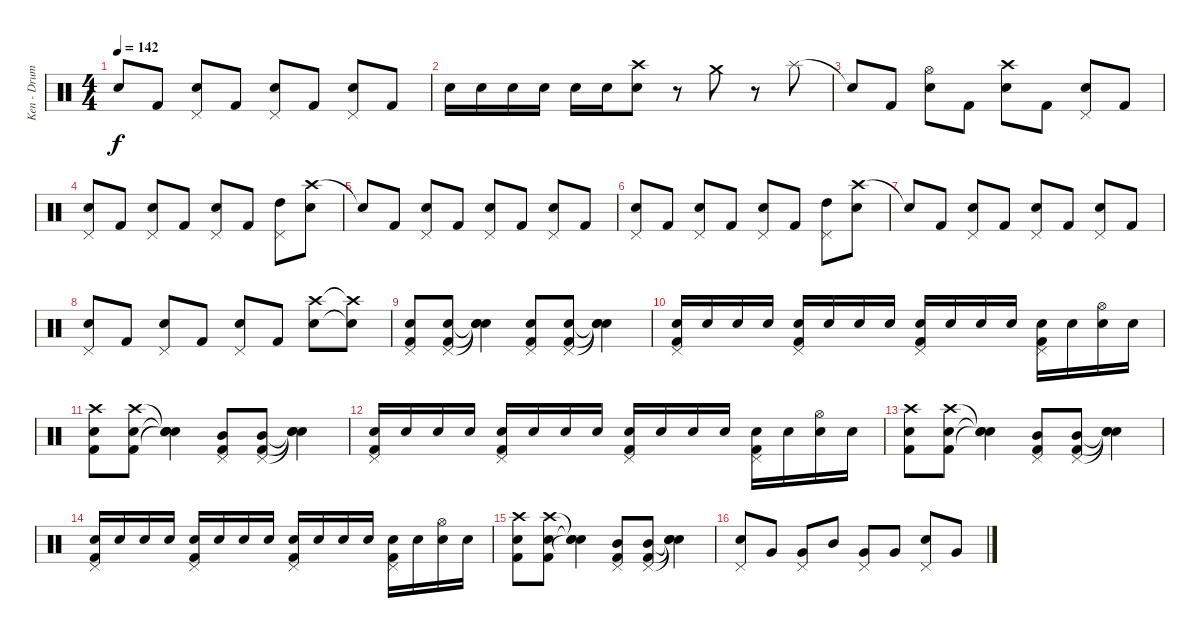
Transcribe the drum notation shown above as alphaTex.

\track ("Ken - Drums" "Ken - Drum") {instrument percussion}
\staff {score}
\articulation defaults
\ts (4 4)
\tempo 142
\clef neutral
\ks c "Snare (hit)"{t}.8{dy f} "Kick (hit) 2".8
("Pedal Hi-Hat (hit)" "Electric Snare (hit)").8 "Kick (hit) 2".8 ("Pedal Hi-Hat (hit)" "Electric Snare (hit)").8 "Kick (hit) 2".8 ("Pedal Hi-Hat (hit)" "Electric Snare (hit)").8 "Kick (hit) 2".8 |
"Electric Snare (hit)".16 "Electric Snare (hit)".16 "Electric Snare (hit)".16 "Electric Snare (hit)".16 "Electric Snare (hit)".16 "Electric Snare (hit)".16 ("Crash high (hit)" "Electric Snare (hit)").8 r.8 "Crash medium (hit)".8 r.8 "Splash (hit)".8 |
"Snare (hit)"{t}.8 "Kick (hit) 2".8 ("Hi-Hat (open)" "Electric Snare (hit)").8 "Kick (hit) 2".8 ("Crash high (hit)" "Electric Snare (hit)").8 "Kick (hit) 2".8 ("Pedal Hi-Hat (hit)" "Electric Snare (hit)").8 "Kick (hit) 2".8 |
("Pedal Hi-Hat (hit)" "Electric Snare (hit)").8 "Kick (hit) 2".8 ("Pedal Hi-Hat (hit)" "Electric Snare (hit)").8 "Kick (hit) 2".8 ("Pedal Hi-Hat (hit)" "Electric Snare (hit)").8 "Kick (hit) 2".8 ("Pedal Hi-Hat (hit)" "High Tom (hit)").8 ("Crash high (hit)" "Electric Snare (hit)").8 |
"Snare (hit)"{t}.8 "Kick (hit) 2".8 ("Pedal Hi-Hat (hit)" "Electric Snare (hit)").8 "Kick (hit) 2".8 ("Pedal Hi-Hat (hit)" "Electric Snare (hit)").8 "Kick (hit) 2".8 ("Pedal Hi-Hat (hit)" "Electric Snare (hit)").8 "Kick (hit) 2".8 |
("Pedal Hi-Hat (hit)" "Electric Snare (hit)").8 "Kick (hit) 2".8 ("Pedal Hi-Hat (hit)" "Electric Snare (hit)").8 "Kick (hit) 2".8 ("Pedal Hi-Hat (hit)" "Electric Snare (hit)").8 "Kick (hit) 2".8 ("Pedal Hi-Hat (hit)" "High Tom (hit)").8 ("Crash high (hit)" "Electric Snare (hit)").8 |
"Snare (hit)"{t}.8 "Kick (hit) 2".8 ("Pedal Hi-Hat (hit)" "Electric Snare (hit)").8 "Kick (hit) 2".8 ("Pedal Hi-Hat (hit)" "Electric Snare (hit)").8 "Kick (hit) 2".8 ("Pedal Hi-Hat (hit)" "Electric Snare (hit)").8 "Kick (hit) 2".8 |
("Pedal Hi-Hat (hit)" "Electric Snare (hit)").8 "Kick (hit) 2".8 ("Pedal Hi-Hat (hit)" "Electric Snare (hit)").8 "Kick (hit) 2".8 ("Pedal Hi-Hat (hit)" "Electric Snare (hit)").8 "Kick (hit) 2".8 ("Crash high (hit)" "Electric Snare (hit)").8 ("Crash high (hit)"{t} "Electric Snare (hit)"{t}).8 |
("Pedal Hi-Hat (hit)" "Electric Snare (hit)" "Kick (hit) 2").8 ("Pedal Hi-Hat (hit)" "Electric Snare (hit)" "Kick (hit) 2").8 ("Snare (hit)"{t} "Snare (hit)"{t} "Snare (hit)"{t}).4 ("Pedal Hi-Hat (hit)" "Electric Snare (hit)" "Kick (hit) 2").8 ("Pedal Hi-Hat (hit)" "Electric Snare (hit)" "Kick (hit) 2").8 ("Snare (hit)"{t} "Snare (hit)"{t} "Snare (hit)"{t}).4 |
("Pedal Hi-Hat (hit)" "Electric Snare (hit)" "Kick (hit) 2").16 "Electric Snare (hit)".16 "Electric Snare (hit)".16 "Electric Snare (hit)".16 ("Pedal Hi-Hat (hit)" "Electric Snare (hit)" "Kick (hit) 2").16 "Electric Snare (hit)".16 "Electric Snare (hit)".16 "Electric Snare (hit)".16 ("Pedal Hi-Hat (hit)" "Electric Snare (hit)" "Kick (hit) 2").16 "Electric Snare (hit)".16 "Electric Snare (hit)".16 "Electric Snare (hit)".16 ("Pedal Hi-Hat (hit)" "Electric Snare (hit)" "Kick (hit) 2").16 "Electric Snare (hit)".16 ("Hi-Hat (open)" "Electric Snare (hit)").16 "Electric Snare (hit)".16 |
("Crash high (hit)" "Electric Snare (hit)" "Kick (hit) 2").8 ("Crash high (hit)" "Electric Snare (hit)" "Kick (hit) 2").8 ("Snare (hit)"{t} "Snare (hit)"{t} "Snare (hit)"{t} "Snare (hit)").4 ("Pedal Hi-Hat (hit)" "Mid Tom (hit)" "Kick (hit) 2").8 ("Pedal Hi-Hat (hit)" "Mid Tom (hit)" "Kick (hit) 2").8 ("Snare (hit)"{t} "Snare (hit)"{t} "Snare (hit)"{t}).4 |
("Pedal Hi-Hat (hit)" "Electric Snare (hit)" "Kick (hit) 2").16 "Electric Snare (hit)".16 "Electric Snare (hit)".16 "Electric Snare (hit)".16 ("Pedal Hi-Hat (hit)" "Electric Snare (hit)" "Kick (hit) 2").16 "Electric Snare (hit)".16 "Electric Snare (hit)".16 "Electric Snare (hit)".16 ("Pedal Hi-Hat (hit)" "Electric Snare (hit)" "Kick (hit) 2").16 "Electric Snare (hit)".16 "Electric Snare (hit)".16 "Electric Snare (hit)".16 ("Pedal Hi-Hat (hit)" "Electric Snare (hit)" "Kick (hit) 2").16 "Electric Snare (hit)".16 ("Hi-Hat (open)" "Electric Snare (hit)").16 "Electric Snare (hit)".16 |
("Crash high (hit)" "Electric Snare (hit)" "Kick (hit) 2").8 ("Crash high (hit)" "Electric Snare (hit)" "Kick (hit) 2").8 ("Snare (hit)"{t} "Snare (hit)"{t} "Snare (hit)"{t}).4 ("Pedal Hi-Hat (hit)" "Mid Tom (hit)" "Kick (hit) 2").8 ("Pedal Hi-Hat (hit)" "Mid Tom (hit)" "Kick (hit) 2").8 ("Snare (hit)"{t} "Snare (hit)"{t} "Snare (hit)"{t}).4 |
("Pedal Hi-Hat (hit)" "Electric Snare (hit)" "Kick (hit) 2").16 "Electric Snare (hit)".16 "Electric Snare (hit)".16 "Electric Snare (hit)".16 ("Pedal Hi-Hat (hit)" "Electric Snare (hit)" "Kick (hit) 2").16 "Electric Snare (hit)".16 "Electric Snare (hit)".16 "Electric Snare (hit)".16 ("Pedal Hi-Hat (hit)" "Electric Snare (hit)" "Kick (hit) 2").16 "Electric Snare (hit)".16 "Electric Snare (hit)".16 "Electric Snare (hit)".16 ("Pedal Hi-Hat (hit)" "Electric Snare (hit)" "Kick (hit) 2").16 "Electric Snare (hit)".16 ("Hi-Hat (open)" "Electric Snare (hit)").16 "Electric Snare (hit)".16 |
("Crash high (hit)" "Electric Snare (hit)" "Kick (hit) 2").8 ("Crash high (hit)" "Electric Snare (hit)" "Kick (hit) 2").8 ("Snare (hit)"{t} "Snare (hit)"{t} "Snare (hit)"{t}).4 ("Pedal Hi-Hat (hit)" "Mid Tom (hit)" "Kick (hit) 2").8 ("Pedal Hi-Hat (hit)" "Mid Tom (hit)" "Kick (hit) 2").8 ("Snare (hit)"{t} "Snare (hit)"{t} "Snare (hit)"{t}).4 |
("Pedal Hi-Hat (hit)" "Electric Snare (hit)").8 "Very Low Tom (hit)".8 ("Pedal Hi-Hat (hit)" "Very Low Tom (hit)").8 "Mid Tom (hit)".8 ("Pedal Hi-Hat (hit)" "Very Low Tom (hit)").8 "Very Low Tom (hit)".8 ("Pedal Hi-Hat (hit)" "Electric Snare (hit)").8 "Very Low Tom (hit)".8
